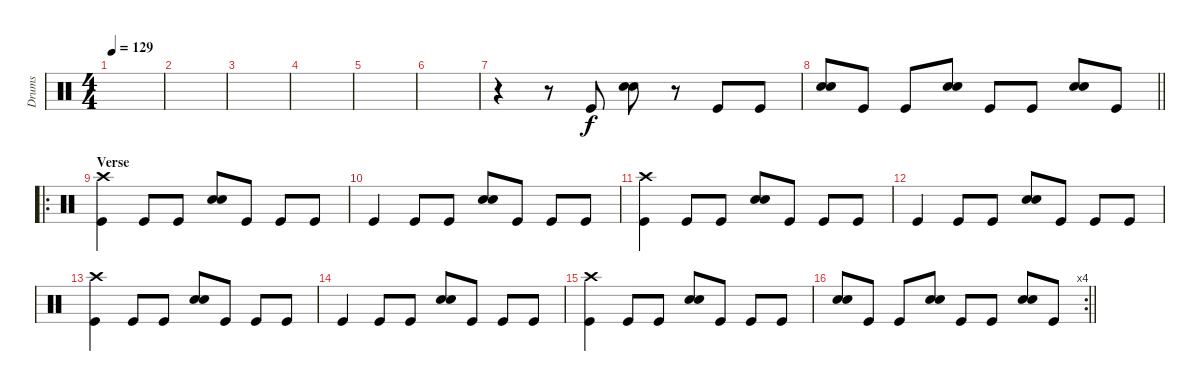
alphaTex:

\track ("Drums" "Drums") {instrument percussion}
\staff {score}
\articulation defaults
\ts (4 4)
\tempo 129
\clef neutral
\ks c
|
|
|
|
|
|
r.4 r.8 "Kick (hit)".8 ("Snare (hit) 2" "Electric Snare (hit)").8 r.8 "Kick (hit)".8 "Kick (hit)".8 |
\barLineRight lightlight
("Snare (hit) 2" "Electric Snare (hit)").8 "Kick (hit)".8 "Kick (hit)".8 ("Snare (hit) 2" "Electric Snare (hit)").8 "Kick (hit)".8 "Kick (hit)".8 ("Snare (hit) 2" "Electric Snare (hit)").8 "Kick (hit)".8 |
\ro
\section ("" "Verse")
("Crash high (hit)" "Kick (hit)").4 "Kick (hit)".8 "Kick (hit)".8 ("Snare (hit) 2" "Electric Snare (hit)").8 "Kick (hit)".8 "Kick (hit)".8 "Kick (hit)".8 |
"Kick (hit)".4 "Kick (hit)".8 "Kick (hit)".8 ("Snare (hit) 2" "Electric Snare (hit)").8 "Kick (hit)".8 "Kick (hit)".8 "Kick (hit)".8 |
("Crash high (hit)" "Kick (hit)").4 "Kick (hit)".8 "Kick (hit)".8 ("Snare (hit) 2" "Electric Snare (hit)").8 "Kick (hit)".8 "Kick (hit)".8 "Kick (hit)".8 |
"Kick (hit)".4 "Kick (hit)".8 "Kick (hit)".8 ("Snare (hit) 2" "Electric Snare (hit)").8 "Kick (hit)".8 "Kick (hit)".8 "Kick (hit)".8 |
("Crash high (hit)" "Kick (hit)").4 "Kick (hit)".8 "Kick (hit)".8 ("Snare (hit) 2" "Electric Snare (hit)").8 "Kick (hit)".8 "Kick (hit)".8 "Kick (hit)".8 |
"Kick (hit)".4 "Kick (hit)".8 "Kick (hit)".8 ("Snare (hit) 2" "Electric Snare (hit)").8 "Kick (hit)".8 "Kick (hit)".8 "Kick (hit)".8 |
("Crash high (hit)" "Kick (hit)").4 "Kick (hit)".8 "Kick (hit)".8 ("Snare (hit) 2" "Electric Snare (hit)").8 "Kick (hit)".8 "Kick (hit)".8 "Kick (hit)".8 |
\rc 4
\barLineRight lightlight
("Snare (hit) 2" "Electric Snare (hit)").8 "Kick (hit)".8 "Kick (hit)".8 ("Snare (hit) 2" "Electric Snare (hit)").8 "Kick (hit)".8 "Kick (hit)".8 ("Snare (hit) 2" "Electric Snare (hit)").8 "Kick (hit)".8
